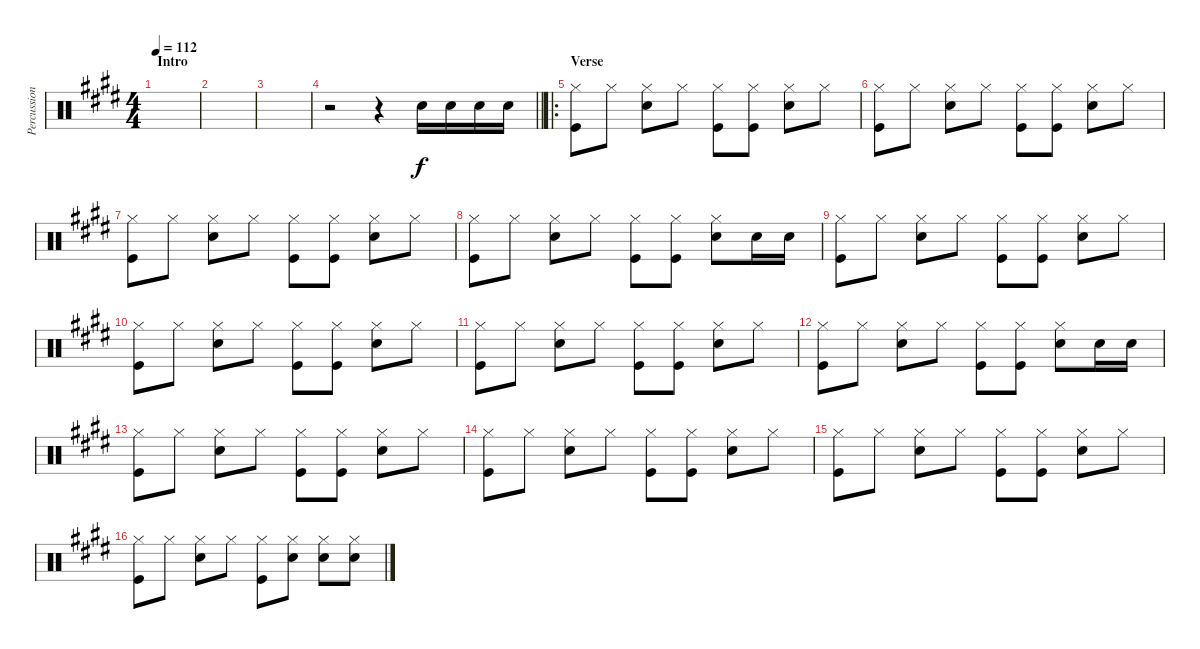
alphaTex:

\track ("Percussion" "Percussion") {instrument percussion}
\staff {score}
\articulation defaults
\ts (4 4)
\section ("" "Intro")
\tempo 112
\clef neutral
\ks e
|
|
|
\barLineRight lightlight
r.2 r.4 "Snare (hit) 2".16 "Snare (hit) 2".16 "Snare (hit) 2".16 "Snare (hit) 2".16 |
\ro
\section ("" "Verse ")
("Hi-Hat (closed)" "Kick (hit)").8 "Hi-Hat (closed)".8 ("Hi-Hat (closed)" "Snare (hit) 2").8 "Hi-Hat (closed)".8 ("Hi-Hat (closed)" "Kick (hit)").8 ("Hi-Hat (closed)" "Kick (hit)").8 ("Hi-Hat (closed)" "Snare (hit) 2").8 "Hi-Hat (closed)".8 |
("Hi-Hat (closed)" "Kick (hit)").8 "Hi-Hat (closed)".8 ("Hi-Hat (closed)" "Snare (hit) 2").8 "Hi-Hat (closed)".8 ("Hi-Hat (closed)" "Kick (hit)").8 ("Hi-Hat (closed)" "Kick (hit)").8 ("Hi-Hat (closed)" "Snare (hit) 2").8 "Hi-Hat (closed)".8 |
("Hi-Hat (closed)" "Kick (hit)").8 "Hi-Hat (closed)".8 ("Hi-Hat (closed)" "Snare (hit) 2").8 "Hi-Hat (closed)".8 ("Hi-Hat (closed)" "Kick (hit)").8 ("Hi-Hat (closed)" "Kick (hit)").8 ("Hi-Hat (closed)" "Snare (hit) 2").8 "Hi-Hat (closed)".8 |
("Hi-Hat (closed)" "Kick (hit)").8 "Hi-Hat (closed)".8 ("Hi-Hat (closed)" "Snare (hit) 2").8 "Hi-Hat (closed)".8 ("Hi-Hat (closed)" "Kick (hit)").8 ("Hi-Hat (closed)" "Kick (hit)").8 ("Hi-Hat (closed)" "Snare (hit) 2").8 "Snare (hit) 2".16 "Snare (hit) 2".16 |
("Hi-Hat (closed)" "Kick (hit)").8 "Hi-Hat (closed)".8 ("Hi-Hat (closed)" "Snare (hit) 2").8 "Hi-Hat (closed)".8 ("Hi-Hat (closed)" "Kick (hit)").8 ("Hi-Hat (closed)" "Kick (hit)").8 ("Hi-Hat (closed)" "Snare (hit) 2").8 "Hi-Hat (closed)".8 |
("Hi-Hat (closed)" "Kick (hit)").8 "Hi-Hat (closed)".8 ("Hi-Hat (closed)" "Snare (hit) 2").8 "Hi-Hat (closed)".8 ("Hi-Hat (closed)" "Kick (hit)").8 ("Hi-Hat (closed)" "Kick (hit)").8 ("Hi-Hat (closed)" "Snare (hit) 2").8 "Hi-Hat (closed)".8 |
("Hi-Hat (closed)" "Kick (hit)").8 "Hi-Hat (closed)".8 ("Hi-Hat (closed)" "Snare (hit) 2").8 "Hi-Hat (closed)".8 ("Hi-Hat (closed)" "Kick (hit)").8 ("Hi-Hat (closed)" "Kick (hit)").8 ("Hi-Hat (closed)" "Snare (hit) 2").8 "Hi-Hat (closed)".8 |
("Hi-Hat (closed)" "Kick (hit)").8 "Hi-Hat (closed)".8 ("Hi-Hat (closed)" "Snare (hit) 2").8 "Hi-Hat (closed)".8 ("Hi-Hat (closed)" "Kick (hit)").8 ("Hi-Hat (closed)" "Kick (hit)").8 ("Hi-Hat (closed)" "Snare (hit) 2").8 "Snare (hit) 2".16 "Snare (hit) 2".16 |
("Hi-Hat (closed)" "Kick (hit)").8 "Hi-Hat (closed)".8 ("Hi-Hat (closed)" "Snare (hit) 2").8 "Hi-Hat (closed)".8 ("Hi-Hat (closed)" "Kick (hit)").8 ("Hi-Hat (closed)" "Kick (hit)").8 ("Hi-Hat (closed)" "Snare (hit) 2").8 "Hi-Hat (closed)".8 |
("Hi-Hat (closed)" "Kick (hit)").8 "Hi-Hat (closed)".8 ("Hi-Hat (closed)" "Snare (hit) 2").8 "Hi-Hat (closed)".8 ("Hi-Hat (closed)" "Kick (hit)").8 ("Hi-Hat (closed)" "Kick (hit)").8 ("Hi-Hat (closed)" "Snare (hit) 2").8 "Hi-Hat (closed)".8 |
("Hi-Hat (closed)" "Kick (hit)").8 "Hi-Hat (closed)".8 ("Hi-Hat (closed)" "Snare (hit) 2").8 "Hi-Hat (closed)".8 ("Hi-Hat (closed)" "Kick (hit)").8 ("Hi-Hat (closed)" "Kick (hit)").8 ("Hi-Hat (closed)" "Snare (hit) 2").8 "Hi-Hat (closed)".8 |
("Hi-Hat (closed)" "Kick (hit)").8 "Hi-Hat (closed)".8 ("Hi-Hat (closed)" "Snare (hit) 2").8 "Hi-Hat (closed)".8 ("Hi-Hat (closed)" "Kick (hit)").8 ("Hi-Hat (closed)" "Snare (hit) 2").8 ("Hi-Hat (closed)" "Snare (hit) 2").8 ("Hi-Hat (closed)" "Snare (hit) 2").8
